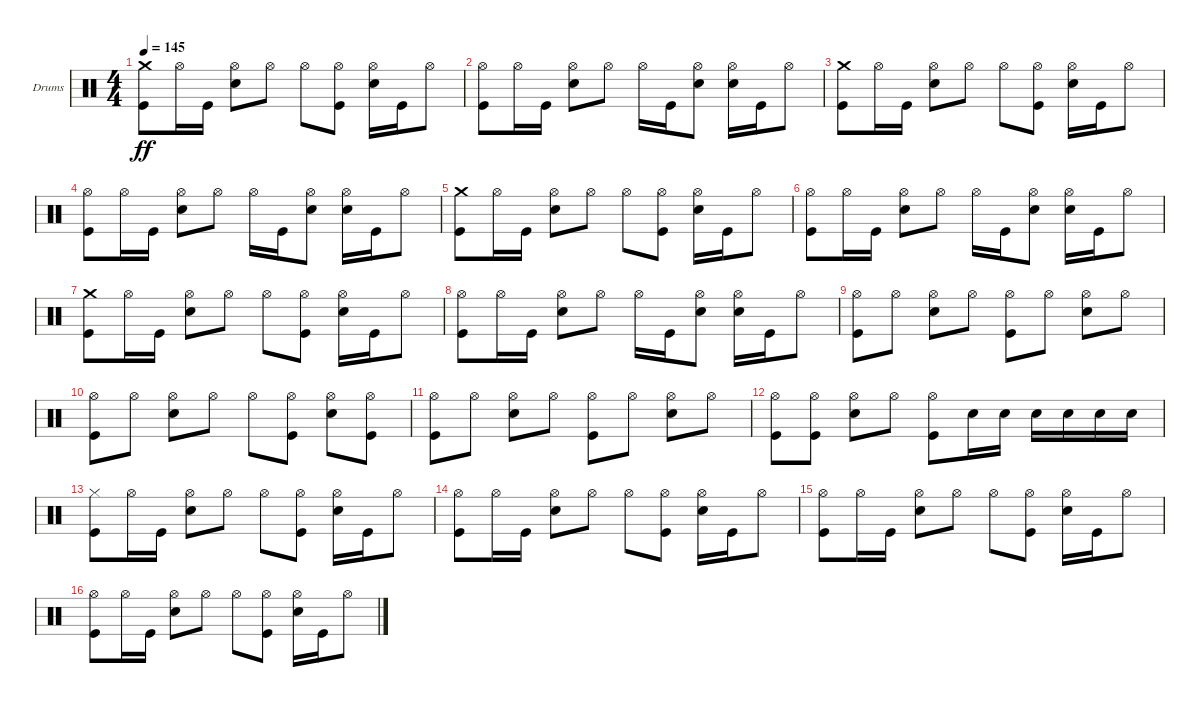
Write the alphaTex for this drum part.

\bracketExtendMode groupsimilarinstruments
\firstSystemTrackNameOrientation horizontal
\otherSystemsTrackNameOrientation horizontal
\track ("Drumkit" "Drums") {instrument percussion}
\staff {score}
\articulation defaults
\ts (4 4)
\tempo 145
\clef neutral
\ks c
("Crash medium (hit)" "Kick (hit)").8{dy ff} "Hi-Hat (open)".16 "Kick (hit)".16 ("Hi-Hat (open)" "Snare (hit) 2").8 "Hi-Hat (open)".8 "Hi-Hat (open)".8 ("Hi-Hat (open)" "Kick (hit)").8 ("Hi-Hat (open)" "Snare (hit) 2").16 "Kick (hit)".16 "Hi-Hat (open)".8 |
("Hi-Hat (open)" "Kick (hit)").8 "Hi-Hat (open)".16 "Kick (hit)".16 ("Hi-Hat (open)" "Snare (hit) 2").8 "Hi-Hat (open)".8 "Hi-Hat (open)".16 "Kick (hit)".16 ("Hi-Hat (open)" "Snare (hit) 2").8 ("Hi-Hat (open)" "Snare (hit) 2").16 "Kick (hit)".16 "Hi-Hat (open)".8 |
("Crash medium (hit)" "Kick (hit)").8 "Hi-Hat (open)".16 "Kick (hit)".16 ("Hi-Hat (open)" "Snare (hit) 2").8 "Hi-Hat (open)".8 "Hi-Hat (open)".8 ("Hi-Hat (open)" "Kick (hit)").8 ("Hi-Hat (open)" "Snare (hit) 2").16 "Kick (hit)".16 "Hi-Hat (open)".8 |
("Hi-Hat (open)" "Kick (hit)").8 "Hi-Hat (open)".16 "Kick (hit)".16 ("Hi-Hat (open)" "Snare (hit) 2").8 "Hi-Hat (open)".8 "Hi-Hat (open)".16 "Kick (hit)".16 ("Hi-Hat (open)" "Snare (hit) 2").8 ("Hi-Hat (open)" "Snare (hit) 2").16 "Kick (hit)".16 "Hi-Hat (open)".8 |
("Crash medium (hit)" "Kick (hit)").8 "Hi-Hat (open)".16 "Kick (hit)".16 ("Hi-Hat (open)" "Snare (hit) 2").8 "Hi-Hat (open)".8 "Hi-Hat (open)".8 ("Hi-Hat (open)" "Kick (hit)").8 ("Hi-Hat (open)" "Snare (hit) 2").16 "Kick (hit)".16 "Hi-Hat (open)".8 |
("Hi-Hat (open)" "Kick (hit)").8 "Hi-Hat (open)".16 "Kick (hit)".16 ("Hi-Hat (open)" "Snare (hit) 2").8 "Hi-Hat (open)".8 "Hi-Hat (open)".16 "Kick (hit)".16 ("Hi-Hat (open)" "Snare (hit) 2").8 ("Hi-Hat (open)" "Snare (hit) 2").16 "Kick (hit)".16 "Hi-Hat (open)".8 |
("Crash medium (hit)" "Kick (hit)").8 "Hi-Hat (open)".16 "Kick (hit)".16 ("Hi-Hat (open)" "Snare (hit) 2").8 "Hi-Hat (open)".8 "Hi-Hat (open)".8 ("Hi-Hat (open)" "Kick (hit)").8 ("Hi-Hat (open)" "Snare (hit) 2").16 "Kick (hit)".16 "Hi-Hat (open)".8 |
("Hi-Hat (open)" "Kick (hit)").8 "Hi-Hat (open)".16 "Kick (hit)".16 ("Hi-Hat (open)" "Snare (hit) 2").8 "Hi-Hat (open)".8 "Hi-Hat (open)".16 "Kick (hit)".16 ("Hi-Hat (open)" "Snare (hit) 2").8 ("Hi-Hat (open)" "Snare (hit) 2").16 "Kick (hit)".16 "Hi-Hat (open)".8 |
("Hi-Hat (open)" "Kick (hit)").8 "Hi-Hat (open)".8 ("Hi-Hat (open)" "Snare (hit) 2").8 "Hi-Hat (open)".8 ("Hi-Hat (open)" "Kick (hit)").8 "Hi-Hat (open)".8 ("Hi-Hat (open)" "Snare (hit) 2").8 "Hi-Hat (open)".8 |
("Hi-Hat (open)" "Kick (hit)").8 "Hi-Hat (open)".8 ("Hi-Hat (open)" "Snare (hit) 2").8 "Hi-Hat (open)".8 "Hi-Hat (open)".8 ("Hi-Hat (open)" "Kick (hit)").8 ("Hi-Hat (open)" "Snare (hit) 2").8 ("Hi-Hat (open)" "Kick (hit)").8 |
("Hi-Hat (open)" "Kick (hit)").8 "Hi-Hat (open)".8 ("Hi-Hat (open)" "Snare (hit) 2").8 "Hi-Hat (open)".8 ("Hi-Hat (open)" "Kick (hit)").8 "Hi-Hat (open)".8 ("Hi-Hat (open)" "Snare (hit) 2").8 "Hi-Hat (open)".8 |
("Hi-Hat (open)" "Kick (hit)").8 ("Hi-Hat (open)" "Kick (hit)").8 ("Hi-Hat (open)" "Snare (hit) 2").8 "Hi-Hat (open)".8 ("Hi-Hat (open)" "Kick (hit)").8 "Snare (hit) 2".16 "Snare (hit) 2".16 "Snare (hit) 2".16 "Snare (hit) 2".16 "Snare (hit) 2".16 "Snare (hit) 2".16 |
("Hi-Hat (closed)" "Kick (hit)").8 "Hi-Hat (open)".16 "Kick (hit)".16 ("Hi-Hat (open)" "Snare (hit) 2").8 "Hi-Hat (open)".8 "Hi-Hat (open)".8 ("Hi-Hat (open)" "Kick (hit)").8 ("Hi-Hat (open)" "Snare (hit) 2").16 "Kick (hit)".16 "Hi-Hat (open)".8 |
("Hi-Hat (open)" "Kick (hit)").8 "Hi-Hat (open)".16 "Kick (hit)".16 ("Hi-Hat (open)" "Snare (hit) 2").8 "Hi-Hat (open)".8 "Hi-Hat (open)".8 ("Hi-Hat (open)" "Kick (hit)").8 ("Hi-Hat (open)" "Snare (hit) 2").16 "Kick (hit)".16 "Hi-Hat (open)".8 |
("Hi-Hat (open)" "Kick (hit)").8 "Hi-Hat (open)".16 "Kick (hit)".16 ("Hi-Hat (open)" "Snare (hit) 2").8 "Hi-Hat (open)".8 "Hi-Hat (open)".8 ("Hi-Hat (open)" "Kick (hit)").8 ("Hi-Hat (open)" "Snare (hit) 2").16 "Kick (hit)".16 "Hi-Hat (open)".8 |
("Hi-Hat (open)" "Kick (hit)").8 "Hi-Hat (open)".16 "Kick (hit)".16 ("Hi-Hat (open)" "Snare (hit) 2").8 "Hi-Hat (open)".8 "Hi-Hat (open)".8 ("Hi-Hat (open)" "Kick (hit)").8 ("Hi-Hat (open)" "Snare (hit) 2").16 "Kick (hit)".16 "Hi-Hat (open)".8
